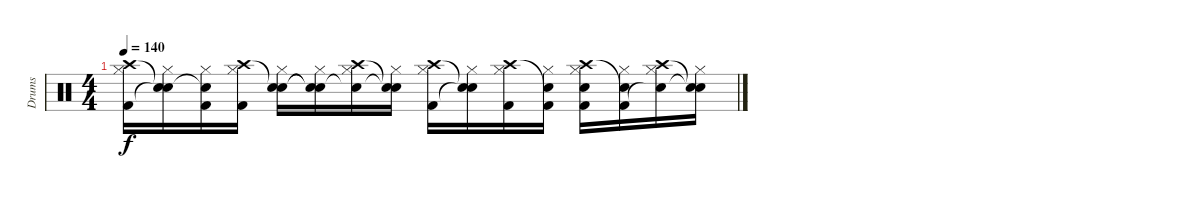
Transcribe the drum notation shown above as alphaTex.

\track ("Drums" "Drums") {instrument percussion}
\staff {score}
\articulation defaults
\ts (4 4)
\tempo 140
\clef neutral
\ks c
("Crash high (hit)" "Hi-Hat (closed)" "Kick (hit) 2").16{dy f} ("Snare (hit)"{t} "Hi-Hat (closed)" "Snare (hit)"{t}).16 ("Snare (hit)"{t} "Hi-Hat (closed)" "Kick (hit) 2").16 ("Crash high (hit)" "Hi-Hat (closed)" "Kick (hit) 2").16 ("Snare (hit)"{t} "Hi-Hat (closed)" "Electric Snare (hit)").16 ("Snare (hit)"{t} "Hi-Hat (closed)" "Snare (hit)"{t}).16 ("Crash high (hit)" "Hi-Hat (closed)" "Snare (hit)"{t}).16 ("Snare (hit)"{t} "Hi-Hat (closed)" "Snare (hit)"{t}).16 ("Crash high (hit)" "Hi-Hat (closed)" "Kick (hit) 2").16 ("Snare (hit)"{t} "Hi-Hat (closed)" "Snare (hit)"{t}).16 ("Crash high (hit)" "Hi-Hat (closed)" "Kick (hit) 2").16 ("Snare (hit)"{t} "Hi-Hat (closed)" "Kick (hit) 2").16 ("Crash high (hit)" "Hi-Hat (closed)" "Snare (hit) 2" "Kick (hit) 2").16 ("Snare (hit)"{t} "Hi-Hat (closed)" "Kick (hit) 2").16 ("Crash high (hit)" "Hi-Hat (closed)" "Snare (hit)"{t}).16 ("Snare (hit)"{t} "Hi-Hat (closed)" "Snare (hit)"{t}).16
